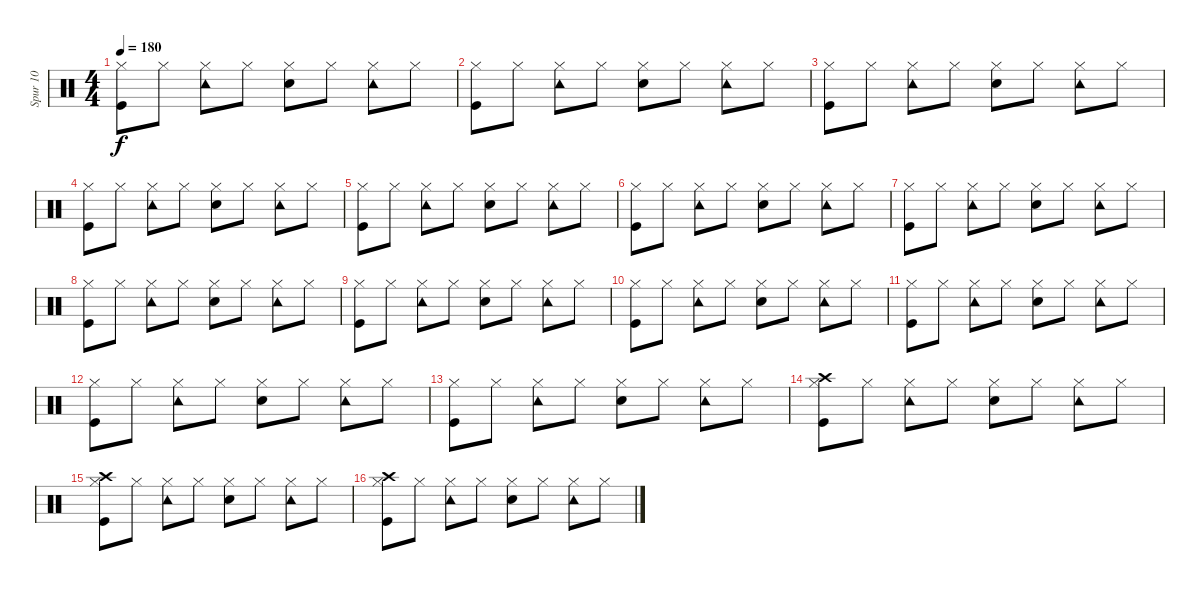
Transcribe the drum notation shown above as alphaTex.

\track ("Spur 10" "Spur 10") {instrument percussion}
\staff {score}
\articulation defaults
\ts (4 4)
\tempo 180
\clef neutral
\ks c
("Hi-Hat (closed)" "Kick (hit)").8{dy f} "Hi-Hat (closed)".8 ("Tambourine (hit)" "Hi-Hat (closed)").8 "Hi-Hat (closed)".8 ("Electric Snare (hit)" "Hi-Hat (closed)").8 "Hi-Hat (closed)".8 ("Tambourine (hit)" "Hi-Hat (closed)").8 "Hi-Hat (closed)".8 |
("Hi-Hat (closed)" "Kick (hit)").8 "Hi-Hat (closed)".8 ("Tambourine (hit)" "Hi-Hat (closed)").8 "Hi-Hat (closed)".8 ("Electric Snare (hit)" "Hi-Hat (closed)").8 "Hi-Hat (closed)".8 ("Tambourine (hit)" "Hi-Hat (closed)").8 "Hi-Hat (closed)".8 |
("Hi-Hat (closed)" "Kick (hit)").8 "Hi-Hat (closed)".8 ("Tambourine (hit)" "Hi-Hat (closed)").8 "Hi-Hat (closed)".8 ("Electric Snare (hit)" "Hi-Hat (closed)").8 "Hi-Hat (closed)".8 ("Tambourine (hit)" "Hi-Hat (closed)").8 "Hi-Hat (closed)".8 |
("Hi-Hat (closed)" "Kick (hit)").8 "Hi-Hat (closed)".8 ("Tambourine (hit)" "Hi-Hat (closed)").8 "Hi-Hat (closed)".8 ("Electric Snare (hit)" "Hi-Hat (closed)").8 "Hi-Hat (closed)".8 ("Tambourine (hit)" "Hi-Hat (closed)").8 "Hi-Hat (closed)".8 |
("Hi-Hat (closed)" "Kick (hit)").8 "Hi-Hat (closed)".8 ("Tambourine (hit)" "Hi-Hat (closed)").8 "Hi-Hat (closed)".8 ("Electric Snare (hit)" "Hi-Hat (closed)").8 "Hi-Hat (closed)".8 ("Tambourine (hit)" "Hi-Hat (closed)").8 "Hi-Hat (closed)".8 |
("Hi-Hat (closed)" "Kick (hit)").8 "Hi-Hat (closed)".8 ("Tambourine (hit)" "Hi-Hat (closed)").8 "Hi-Hat (closed)".8 ("Electric Snare (hit)" "Hi-Hat (closed)").8 "Hi-Hat (closed)".8 ("Tambourine (hit)" "Hi-Hat (closed)").8 "Hi-Hat (closed)".8 |
("Hi-Hat (closed)" "Kick (hit)").8 "Hi-Hat (closed)".8 ("Tambourine (hit)" "Hi-Hat (closed)").8 "Hi-Hat (closed)".8 ("Electric Snare (hit)" "Hi-Hat (closed)").8 "Hi-Hat (closed)".8 ("Tambourine (hit)" "Hi-Hat (closed)").8 "Hi-Hat (closed)".8 |
("Hi-Hat (closed)" "Kick (hit)").8 "Hi-Hat (closed)".8 ("Tambourine (hit)" "Hi-Hat (closed)").8 "Hi-Hat (closed)".8 ("Electric Snare (hit)" "Hi-Hat (closed)").8 "Hi-Hat (closed)".8 ("Tambourine (hit)" "Hi-Hat (closed)").8 "Hi-Hat (closed)".8 |
("Hi-Hat (closed)" "Kick (hit)").8 "Hi-Hat (closed)".8 ("Tambourine (hit)" "Hi-Hat (closed)").8 "Hi-Hat (closed)".8 ("Electric Snare (hit)" "Hi-Hat (closed)").8 "Hi-Hat (closed)".8 ("Tambourine (hit)" "Hi-Hat (closed)").8 "Hi-Hat (closed)".8 |
("Hi-Hat (closed)" "Kick (hit)").8 "Hi-Hat (closed)".8 ("Tambourine (hit)" "Hi-Hat (closed)").8 "Hi-Hat (closed)".8 ("Electric Snare (hit)" "Hi-Hat (closed)").8 "Hi-Hat (closed)".8 ("Tambourine (hit)" "Hi-Hat (closed)").8 "Hi-Hat (closed)".8 |
("Hi-Hat (closed)" "Kick (hit)").8 "Hi-Hat (closed)".8 ("Tambourine (hit)" "Hi-Hat (closed)").8 "Hi-Hat (closed)".8 ("Electric Snare (hit)" "Hi-Hat (closed)").8 "Hi-Hat (closed)".8 ("Tambourine (hit)" "Hi-Hat (closed)").8 "Hi-Hat (closed)".8 |
("Hi-Hat (closed)" "Kick (hit)").8 "Hi-Hat (closed)".8 ("Tambourine (hit)" "Hi-Hat (closed)").8 "Hi-Hat (closed)".8 ("Electric Snare (hit)" "Hi-Hat (closed)").8 "Hi-Hat (closed)".8 ("Tambourine (hit)" "Hi-Hat (closed)").8 "Hi-Hat (closed)".8 |
("Hi-Hat (closed)" "Kick (hit)").8 "Hi-Hat (closed)".8 ("Tambourine (hit)" "Hi-Hat (closed)").8 "Hi-Hat (closed)".8 ("Electric Snare (hit)" "Hi-Hat (closed)").8 "Hi-Hat (closed)".8 ("Tambourine (hit)" "Hi-Hat (closed)").8 "Hi-Hat (closed)".8 |
("Crash high (hit)" "Hi-Hat (closed)" "Kick (hit)").8 "Hi-Hat (closed)".8 ("Tambourine (hit)" "Hi-Hat (closed)").8 "Hi-Hat (closed)".8 ("Electric Snare (hit)" "Hi-Hat (closed)").8 "Hi-Hat (closed)".8 ("Tambourine (hit)" "Hi-Hat (closed)").8 "Hi-Hat (closed)".8 |
("Crash high (hit)" "Hi-Hat (closed)" "Kick (hit)").8 "Hi-Hat (closed)".8 ("Tambourine (hit)" "Hi-Hat (closed)").8 "Hi-Hat (closed)".8 ("Electric Snare (hit)" "Hi-Hat (closed)").8 "Hi-Hat (closed)".8 ("Tambourine (hit)" "Hi-Hat (closed)").8 "Hi-Hat (closed)".8 |
("Crash high (hit)" "Hi-Hat (closed)" "Kick (hit)").8 "Hi-Hat (closed)".8 ("Tambourine (hit)" "Hi-Hat (closed)").8 "Hi-Hat (closed)".8 ("Electric Snare (hit)" "Hi-Hat (closed)").8 "Hi-Hat (closed)".8 ("Tambourine (hit)" "Hi-Hat (closed)").8 "Hi-Hat (closed)".8
